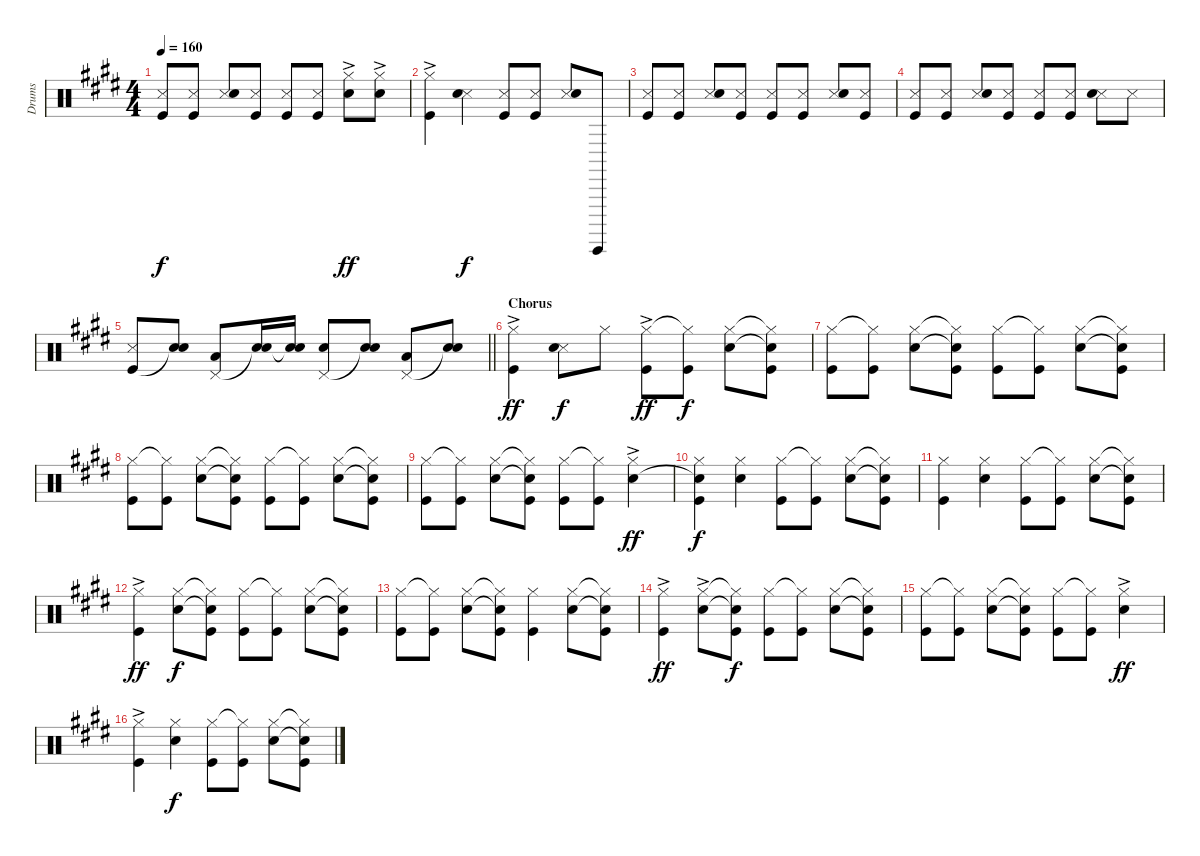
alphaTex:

\track ("Drums" "Drums") {instrument percussion}
\staff {score}
\articulation defaults
\ts (4 4)
\tempo 160
\clef neutral
\ks e
("Snare (side stick) 3" "Kick (hit)").8{dy f} ("Snare (side stick) 3" "Kick (hit)").8 ("Snare (side stick) 3" "Snare (hit) 2").8 ("Snare (side stick) 3" "Kick (hit)").8 ("Snare (side stick) 3" "Kick (hit)").8 ("Snare (side stick) 3" "Kick (hit)").8 ("Hi-Hat (closed)"{ac} "Snare (hit) 2").8{dy ff} ("Hi-Hat (closed)"{ac} "Snare (hit) 2").8 |
("Hi-Hat (closed)"{ac} "Kick (hit)").4 ("Snare (side stick) 3" "Snare (hit) 2").4{dy f} ("Snare (side stick) 3" "Kick (hit)").8 ("Snare (side stick) 3" "Kick (hit)").8 ("Snare (side stick) 3" "Snare (hit) 2").8 "Guiro (hit)".8 |
("Snare (side stick) 3" "Kick (hit)").8 ("Snare (side stick) 3" "Kick (hit)").8 ("Snare (side stick) 3" "Snare (hit) 2").8 ("Snare (side stick) 3" "Kick (hit)").8 ("Snare (side stick) 3" "Kick (hit)").8 ("Snare (side stick) 3" "Kick (hit)").8 ("Snare (side stick) 3" "Snare (hit) 2").8 ("Snare (side stick) 3" "Kick (hit)").8 |
("Snare (side stick) 3" "Kick (hit)").8 ("Snare (side stick) 3" "Kick (hit)").8 ("Snare (side stick) 3" "Snare (hit) 2").8 ("Snare (side stick) 3" "Kick (hit)").8 ("Snare (side stick) 3" "Kick (hit)").8 ("Snare (side stick) 3" "Kick (hit)").8 ("Snare (side stick) 3" "Snare (hit) 2").8 "Snare (side stick) 3".8 |
\barLineRight lightlight
("Snare (side stick) 3" "Kick (hit)").8 ("Snare (hit) 2" "Snare (hit)"{t}).8 ("Low Tom (hit)" "Pedal Hi-Hat (hit)").8 ("Snare (hit) 2" "Snare (hit)"{t}).16 ("Snare (hit) 2" "Snare (hit)"{t}).16 ("Snare (hit) 2" "Pedal Hi-Hat (hit)").8 ("Snare (hit) 2" "Snare (hit)"{t}).8 ("Low Tom (hit)" "Pedal Hi-Hat (hit)").8 ("Snare (hit) 2" "Snare (hit)"{t}).8 |
\section ("" "Chorus")
("Hi-Hat (closed)"{ac} "Kick (hit)").4{dy ff} ("Snare (side stick) 3" "Snare (hit) 2").8{dy f} "Hi-Hat (closed)".8 ("Hi-Hat (closed)"{ac} "Kick (hit)").8{dy ff} ("Hi-Hat (closed)"{t} "Kick (hit)").8{dy f} ("Hi-Hat (closed)" "Snare (hit) 2").8 ("Hi-Hat (closed)"{t} "Snare (hit) 2"{t} "Kick (hit)").8 |
("Hi-Hat (closed)" "Kick (hit)").8 ("Hi-Hat (closed)"{t} "Kick (hit)").8 ("Hi-Hat (closed)" "Snare (hit) 2").8 ("Hi-Hat (closed)"{t} "Snare (hit) 2"{t} "Kick (hit)").8 ("Hi-Hat (closed)" "Kick (hit)").8 ("Hi-Hat (closed)"{t} "Kick (hit)").8 ("Hi-Hat (closed)" "Snare (hit) 2").8 ("Hi-Hat (closed)"{t} "Snare (hit) 2"{t} "Kick (hit)").8 |
("Hi-Hat (closed)" "Kick (hit)").8 ("Hi-Hat (closed)"{t} "Kick (hit)").8 ("Hi-Hat (closed)" "Snare (hit) 2").8 ("Hi-Hat (closed)"{t} "Snare (hit) 2"{t} "Kick (hit)").8 ("Hi-Hat (closed)" "Kick (hit)").8 ("Hi-Hat (closed)"{t} "Kick (hit)").8 ("Hi-Hat (closed)" "Snare (hit) 2").8 ("Hi-Hat (closed)"{t} "Snare (hit) 2"{t} "Kick (hit)").8 |
("Hi-Hat (closed)" "Kick (hit)").8 ("Hi-Hat (closed)"{t} "Kick (hit)").8 ("Hi-Hat (closed)" "Snare (hit) 2").8 ("Hi-Hat (closed)"{t} "Snare (hit) 2"{t} "Kick (hit)").8 ("Hi-Hat (closed)" "Kick (hit)").8 ("Hi-Hat (closed)"{t} "Kick (hit)").8 ("Hi-Hat (closed)"{ac} "Snare (hit) 2").4{dy ff} |
("Hi-Hat (closed)" "Snare (hit)"{t} "Kick (hit)").4{dy f} ("Hi-Hat (closed)" "Snare (hit) 2").4 ("Hi-Hat (closed)" "Kick (hit)").8 ("Hi-Hat (closed)"{t} "Kick (hit)").8 ("Hi-Hat (closed)" "Snare (hit) 2").8 ("Hi-Hat (closed)"{t} "Snare (hit) 2"{t} "Kick (hit)").8 |
("Hi-Hat (closed)" "Kick (hit)").4 ("Hi-Hat (closed)" "Snare (hit) 2").4 ("Hi-Hat (closed)" "Kick (hit)").8 ("Hi-Hat (closed)"{t} "Kick (hit)").8 ("Hi-Hat (closed)" "Snare (hit) 2").8 ("Hi-Hat (closed)"{t} "Snare (hit) 2"{t} "Kick (hit)").8 |
("Hi-Hat (closed)"{ac} "Kick (hit)").4{dy ff} ("Hi-Hat (closed)" "Snare (hit) 2").8{dy f} ("Hi-Hat (closed)"{t} "Snare (hit) 2"{t} "Kick (hit)").8 ("Hi-Hat (closed)" "Kick (hit)").8 ("Hi-Hat (closed)"{t} "Kick (hit)").8 ("Hi-Hat (closed)" "Snare (hit) 2").8 ("Hi-Hat (closed)"{t} "Snare (hit) 2"{t} "Kick (hit)").8 |
("Hi-Hat (closed)" "Kick (hit)").8 ("Hi-Hat (closed)"{t} "Kick (hit)").8 ("Hi-Hat (closed)" "Snare (hit) 2").8 ("Hi-Hat (closed)"{t} "Snare (hit) 2"{t} "Kick (hit)").8 ("Hi-Hat (closed)" "Kick (hit)").4 ("Hi-Hat (closed)" "Snare (hit) 2").8 ("Hi-Hat (closed)"{t} "Snare (hit) 2"{t} "Kick (hit)").8 |
("Hi-Hat (closed)"{ac} "Kick (hit)").4{dy ff} ("Hi-Hat (closed)"{ac} "Snare (hit) 2").8 ("Hi-Hat (closed)"{t} "Snare (hit) 2"{t} "Kick (hit)").8{dy f} ("Hi-Hat (closed)" "Kick (hit)").8 ("Hi-Hat (closed)"{t} "Kick (hit)").8 ("Hi-Hat (closed)" "Snare (hit) 2").8 ("Hi-Hat (closed)"{t} "Snare (hit) 2"{t} "Kick (hit)").8 |
("Hi-Hat (closed)" "Kick (hit)").8 ("Hi-Hat (closed)"{t} "Kick (hit)").8 ("Hi-Hat (closed)" "Snare (hit) 2").8 ("Hi-Hat (closed)"{t} "Snare (hit) 2"{t} "Kick (hit)").8 ("Hi-Hat (closed)" "Kick (hit)").8 ("Hi-Hat (closed)"{t} "Kick (hit)").8 ("Hi-Hat (closed)"{ac} "Snare (hit) 2").4{dy ff} |
("Hi-Hat (closed)"{ac} "Kick (hit)").4 ("Hi-Hat (closed)" "Snare (hit) 2").4{dy f} ("Hi-Hat (closed)" "Kick (hit)").8 ("Hi-Hat (closed)"{t} "Kick (hit)").8 ("Hi-Hat (closed)" "Snare (hit) 2").8 ("Hi-Hat (closed)"{t} "Snare (hit) 2"{t} "Kick (hit)").8
